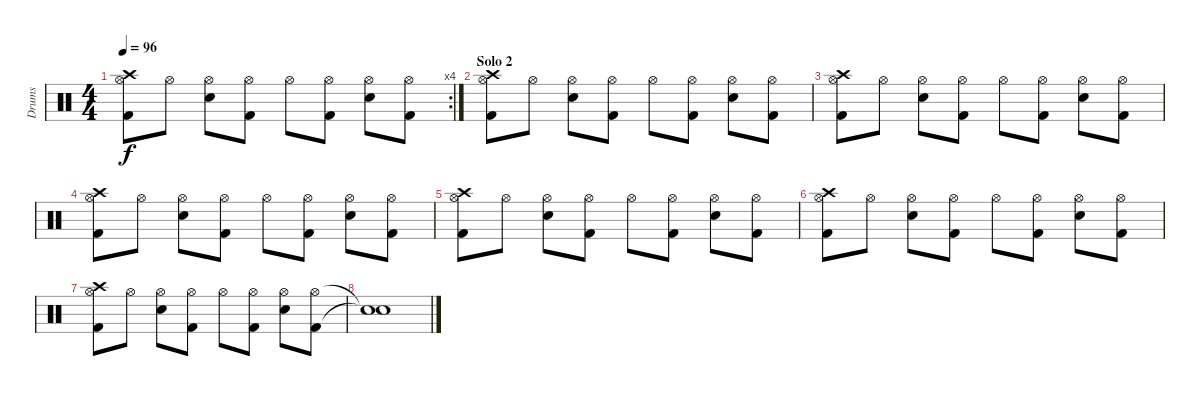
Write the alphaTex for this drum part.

\track ("Drums" "Drums") {instrument percussion}
\staff {score}
\articulation defaults
\rc 4
\ts (4 4)
\tempo 96
\clef neutral
\ks c
("Kick (hit) 2" "Hi-Hat (open)" "Crash high (hit)").8{dy f} "Hi-Hat (open)".8 ("Electric Snare (hit)" "Hi-Hat (open)").8 ("Kick (hit) 2" "Hi-Hat (open)").8 "Hi-Hat (open)".8 ("Kick (hit) 2" "Hi-Hat (open)").8 ("Electric Snare (hit)" "Hi-Hat (open)").8 ("Kick (hit) 2" "Hi-Hat (open)").8 |
\section ("" "Solo 2")
("Kick (hit) 2" "Hi-Hat (open)" "Crash high (hit)").8 "Hi-Hat (open)".8 ("Electric Snare (hit)" "Hi-Hat (open)").8 ("Kick (hit) 2" "Hi-Hat (open)").8 "Hi-Hat (open)".8 ("Kick (hit) 2" "Hi-Hat (open)").8 ("Electric Snare (hit)" "Hi-Hat (open)").8 ("Kick (hit) 2" "Hi-Hat (open)").8 |
("Kick (hit) 2" "Hi-Hat (open)" "Crash high (hit)").8 "Hi-Hat (open)".8 ("Electric Snare (hit)" "Hi-Hat (open)").8 ("Kick (hit) 2" "Hi-Hat (open)").8 "Hi-Hat (open)".8 ("Kick (hit) 2" "Hi-Hat (open)").8 ("Electric Snare (hit)" "Hi-Hat (open)").8 ("Kick (hit) 2" "Hi-Hat (open)").8 |
("Kick (hit) 2" "Hi-Hat (open)" "Crash high (hit)").8 "Hi-Hat (open)".8 ("Electric Snare (hit)" "Hi-Hat (open)").8 ("Kick (hit) 2" "Hi-Hat (open)").8 "Hi-Hat (open)".8 ("Kick (hit) 2" "Hi-Hat (open)").8 ("Electric Snare (hit)" "Hi-Hat (open)").8 ("Kick (hit) 2" "Hi-Hat (open)").8 |
("Kick (hit) 2" "Hi-Hat (open)" "Crash high (hit)").8 "Hi-Hat (open)".8 ("Electric Snare (hit)" "Hi-Hat (open)").8 ("Kick (hit) 2" "Hi-Hat (open)").8 "Hi-Hat (open)".8 ("Kick (hit) 2" "Hi-Hat (open)").8 ("Electric Snare (hit)" "Hi-Hat (open)").8 ("Kick (hit) 2" "Hi-Hat (open)").8 |
("Kick (hit) 2" "Hi-Hat (open)" "Crash high (hit)").8 "Hi-Hat (open)".8 ("Electric Snare (hit)" "Hi-Hat (open)").8 ("Kick (hit) 2" "Hi-Hat (open)").8 "Hi-Hat (open)".8 ("Kick (hit) 2" "Hi-Hat (open)").8 ("Electric Snare (hit)" "Hi-Hat (open)").8 ("Kick (hit) 2" "Hi-Hat (open)").8 |
("Kick (hit) 2" "Hi-Hat (open)" "Crash high (hit)").8 "Hi-Hat (open)".8 ("Electric Snare (hit)" "Hi-Hat (open)").8 ("Kick (hit) 2" "Hi-Hat (open)").8 "Hi-Hat (open)".8 ("Kick (hit) 2" "Hi-Hat (open)").8 ("Electric Snare (hit)" "Hi-Hat (open)").8 ("Kick (hit) 2" "Hi-Hat (open)").8 |
("Snare (hit)"{t} "Snare (hit)"{t}).1
